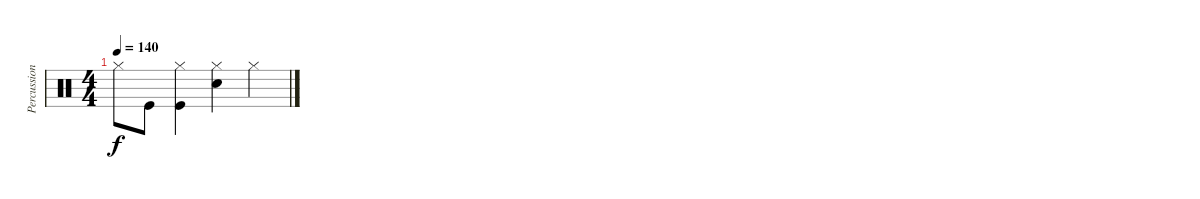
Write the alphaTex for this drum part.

\track ("Percussion" "Percussion") {instrument percussion}
\staff {score}
\articulation defaults
\ts (4 4)
\tempo 140
\clef neutral
\ks c "Hi-Hat (closed)".8{dy f} "Kick (hit)".8
("Kick (hit)" "Hi-Hat (closed)").4 ("Snare (hit) 2" "Hi-Hat (closed)").4 "Hi-Hat (closed)".4
